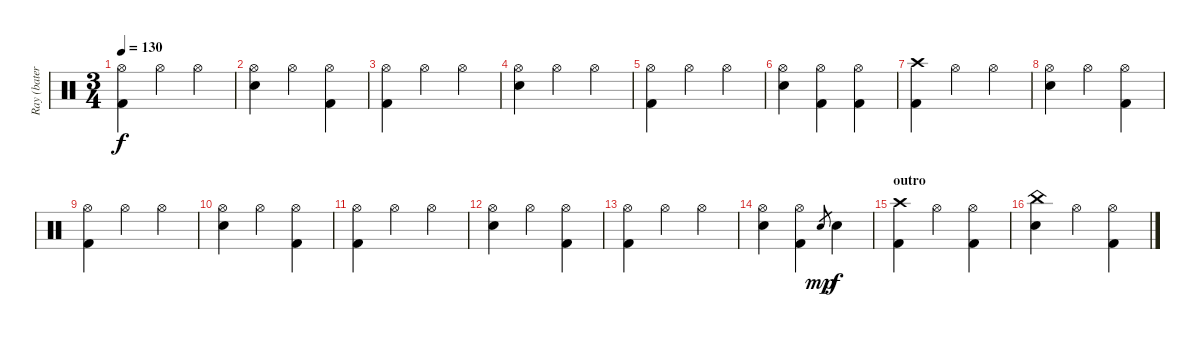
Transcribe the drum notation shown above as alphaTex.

\track ("Ray (batería)" "Ray (bater") {instrument percussion}
\staff {score}
\articulation defaults
\ts (3 4)
\tempo 130
\clef neutral
\ks c
("Hi-Hat (open)" "Kick (hit) 2").4{dy f} "Hi-Hat (open)".4 "Hi-Hat (open)".4 |
("Hi-Hat (open)" "Snare (hit) 2").4 "Hi-Hat (open)".4 ("Hi-Hat (open)" "Kick (hit) 2").4 |
("Hi-Hat (open)" "Kick (hit) 2").4 "Hi-Hat (open)".4 "Hi-Hat (open)".4 |
("Hi-Hat (open)" "Snare (hit) 2").4 "Hi-Hat (open)".4 "Hi-Hat (open)".4 |
("Hi-Hat (open)" "Kick (hit) 2").4 "Hi-Hat (open)".4 "Hi-Hat (open)".4 |
("Hi-Hat (open)" "Snare (hit) 2").4 ("Hi-Hat (open)" "Kick (hit) 2").4 ("Hi-Hat (open)" "Kick (hit) 2").4 |
("Crash high (hit)" "Kick (hit) 2").4 "Hi-Hat (open)".4 "Hi-Hat (open)".4 |
("Hi-Hat (open)" "Snare (hit) 2").4 "Hi-Hat (open)".4 ("Hi-Hat (open)" "Kick (hit) 2").4 |
("Hi-Hat (open)" "Kick (hit) 2").4 "Hi-Hat (open)".4 "Hi-Hat (open)".4 |
("Hi-Hat (open)" "Snare (hit) 2").4 "Hi-Hat (open)".4 ("Hi-Hat (open)" "Kick (hit) 2").4 |
("Hi-Hat (open)" "Kick (hit) 2").4 "Hi-Hat (open)".4 "Hi-Hat (open)".4 |
("Hi-Hat (open)" "Snare (hit) 2").4 "Hi-Hat (open)".4 ("Hi-Hat (open)" "Kick (hit) 2").4 |
("Hi-Hat (open)" "Kick (hit) 2").4 "Hi-Hat (open)".4 "Hi-Hat (open)".4 |
("Hi-Hat (open)" "Snare (hit) 2").4 ("Hi-Hat (open)" "Kick (hit) 2").4 "Snare (hit) 2".8{gr dy mp} "Snare (hit) 2".4{dy f} |
\section ("" "outro")
("Crash high (hit)" "Kick (hit) 2").4 "Hi-Hat (open)".4 ("Hi-Hat (open)" "Kick (hit) 2").4 |
("China (hit)" "Snare (hit) 2").4 "Hi-Hat (open)".4 ("Hi-Hat (open)" "Kick (hit) 2").4
